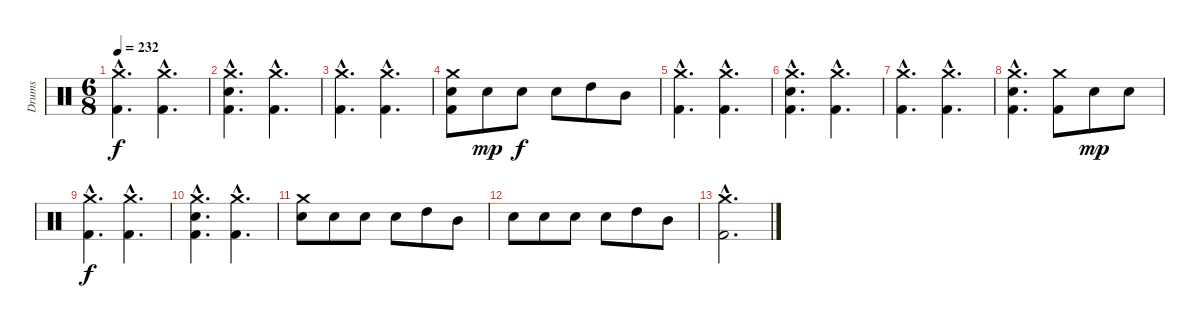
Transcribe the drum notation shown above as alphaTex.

\track ("Drums" "Drums") {instrument percussion}
\staff {score}
\articulation defaults
\ts (6 8)
\tempo 232
\clef neutral
\ks c
("Crash medium (hit)"{hac} "Kick (hit) 2"{hac}).4{d dy f} ("Crash medium (hit)"{hac} "Kick (hit) 2"{hac}).4{d} |
("Crash medium (hit)"{hac} "Snare (hit) 2"{hac} "Kick (hit) 2"{hac}).4{d} ("Crash medium (hit)"{hac} "Kick (hit) 2"{hac}).4{d} |
("Crash medium (hit)"{hac} "Kick (hit) 2"{hac}).4{d} ("Crash medium (hit)"{hac} "Kick (hit) 2"{hac}).4{d} |
("Crash medium (hit)" "Snare (hit) 2" "Kick (hit) 2").8 "Snare (hit) 2".8{dy mp} "Snare (hit) 2".8{dy f} "Snare (hit) 2".8 "High Tom (hit)".8 "Mid Tom (hit)".8 |
("Crash medium (hit)"{hac} "Kick (hit) 2"{hac}).4{d} ("Crash medium (hit)"{hac} "Kick (hit) 2"{hac}).4{d} |
("Crash medium (hit)"{hac} "Snare (hit) 2"{hac} "Kick (hit) 2"{hac}).4{d} ("Crash medium (hit)"{hac} "Kick (hit) 2"{hac}).4{d} |
("Crash medium (hit)"{hac} "Kick (hit) 2"{hac}).4{d} ("Crash medium (hit)"{hac} "Kick (hit) 2"{hac}).4{d} |
("Crash medium (hit)"{hac} "Snare (hit) 2"{hac} "Kick (hit) 2"{hac}).4{d} ("Crash medium (hit)" "Kick (hit) 2").8 "Snare (hit) 2".8{dy mp} "Snare (hit) 2".8 |
("Crash medium (hit)"{hac} "Kick (hit) 2"{hac}).4{d dy f} ("Crash medium (hit)"{hac} "Kick (hit) 2"{hac}).4{d} |
("Crash medium (hit)"{hac} "Snare (hit) 2"{hac} "Kick (hit) 2"{hac}).4{d} ("Crash medium (hit)"{hac} "Kick (hit) 2"{hac}).4{d} |
("Crash medium (hit)" "Snare (hit) 2").8 "Snare (hit) 2".8 "Snare (hit) 2".8 "Snare (hit) 2".8 "High Tom (hit)".8 "Mid Tom (hit)".8 |
"Snare (hit) 2".8 "Snare (hit) 2".8 "Snare (hit) 2".8 "Snare (hit) 2".8 "High Tom (hit)".8 "Mid Tom (hit)".8 |
("Crash medium (hit)"{hac} "Kick (hit) 2"{hac}).2{d}
